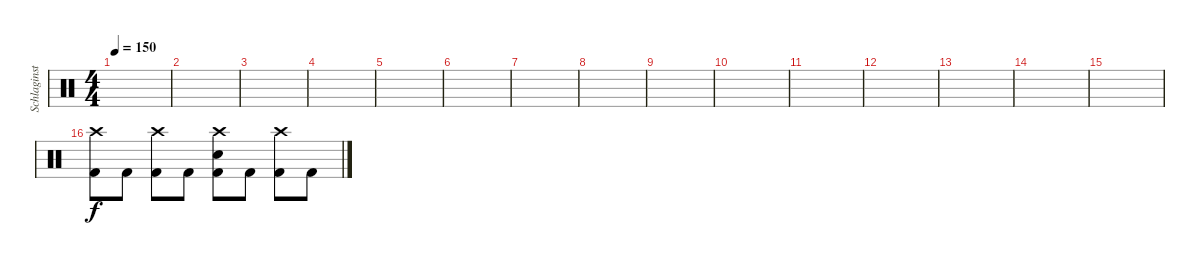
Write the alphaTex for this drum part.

\track ("Schlaginstrumente - Auswahl" "Schlaginst") {instrument percussion}
\staff {score}
\articulation defaults
\ts (4 4)
\tempo 150
\clef neutral
\ks c
|
|
|
|
|
|
|
|
|
|
|
|
|
|
|
("Crash high (hit)" "Kick (hit) 2").8 "Kick (hit) 2".8 ("Crash high (hit)" "Kick (hit) 2").8 "Kick (hit) 2".8 ("Crash high (hit)" "Snare (hit) 2" "Kick (hit) 2").8 "Kick (hit) 2".8 ("Crash high (hit)" "Kick (hit) 2").8 "Kick (hit) 2".8
